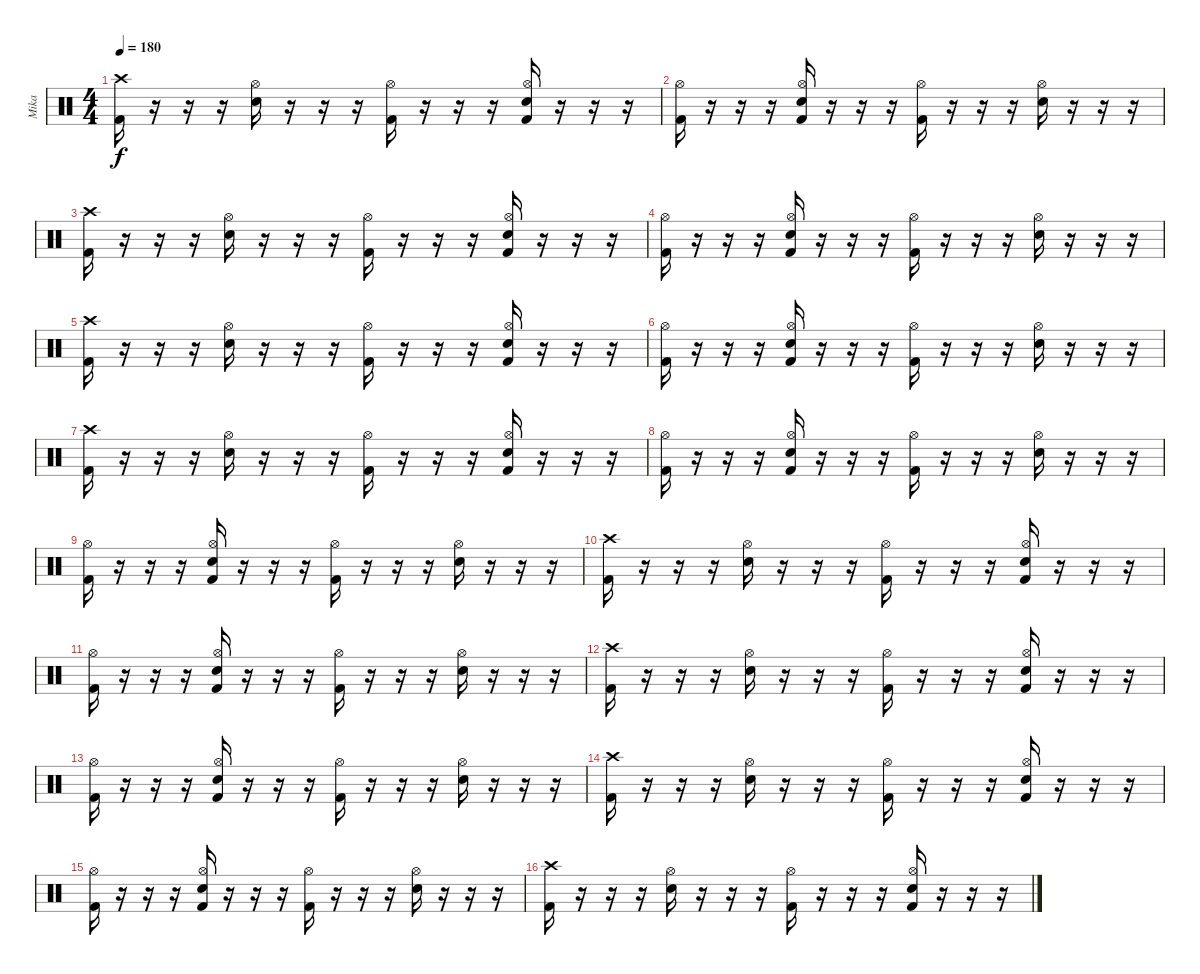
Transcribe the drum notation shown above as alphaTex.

\track ("Mika" "Mika") {instrument percussion}
\staff {score}
\articulation defaults
\ts (4 4)
\tempo 180
\clef neutral
\ks c
("Crash high (hit)" "Kick (hit) 2").16{dy f} r.16 r.16 r.16 ("Hi-Hat (open)" "Electric Snare (hit)").16 r.16 r.16 r.16 ("Hi-Hat (open)" "Kick (hit) 2").16 r.16 r.16 r.16 ("Hi-Hat (open)" "Electric Snare (hit)" "Kick (hit) 2").16 r.16 r.16 r.16 |
("Hi-Hat (open)" "Kick (hit) 2").16 r.16 r.16 r.16 ("Hi-Hat (open)" "Electric Snare (hit)" "Kick (hit) 2").16 r.16 r.16 r.16 ("Hi-Hat (open)" "Kick (hit) 2").16 r.16 r.16 r.16 ("Hi-Hat (open)" "Electric Snare (hit)").16 r.16 r.16 r.16 |
("Crash high (hit)" "Kick (hit) 2").16 r.16 r.16 r.16 ("Hi-Hat (open)" "Electric Snare (hit)").16 r.16 r.16 r.16 ("Hi-Hat (open)" "Kick (hit) 2").16 r.16 r.16 r.16 ("Hi-Hat (open)" "Electric Snare (hit)" "Kick (hit) 2").16 r.16 r.16 r.16 |
("Hi-Hat (open)" "Kick (hit) 2").16 r.16 r.16 r.16 ("Hi-Hat (open)" "Electric Snare (hit)" "Kick (hit) 2").16 r.16 r.16 r.16 ("Hi-Hat (open)" "Kick (hit) 2").16 r.16 r.16 r.16 ("Hi-Hat (open)" "Electric Snare (hit)").16 r.16 r.16 r.16 |
("Crash high (hit)" "Kick (hit) 2").16 r.16 r.16 r.16 ("Hi-Hat (open)" "Electric Snare (hit)").16 r.16 r.16 r.16 ("Hi-Hat (open)" "Kick (hit) 2").16 r.16 r.16 r.16 ("Hi-Hat (open)" "Electric Snare (hit)" "Kick (hit) 2").16 r.16 r.16 r.16 |
("Hi-Hat (open)" "Kick (hit) 2").16 r.16 r.16 r.16 ("Hi-Hat (open)" "Electric Snare (hit)" "Kick (hit) 2").16 r.16 r.16 r.16 ("Hi-Hat (open)" "Kick (hit) 2").16 r.16 r.16 r.16 ("Hi-Hat (open)" "Electric Snare (hit)").16 r.16 r.16 r.16 |
("Crash high (hit)" "Kick (hit) 2").16 r.16 r.16 r.16 ("Hi-Hat (open)" "Electric Snare (hit)").16 r.16 r.16 r.16 ("Hi-Hat (open)" "Kick (hit) 2").16 r.16 r.16 r.16 ("Hi-Hat (open)" "Electric Snare (hit)" "Kick (hit) 2").16 r.16 r.16 r.16 |
("Hi-Hat (open)" "Kick (hit) 2").16 r.16 r.16 r.16 ("Hi-Hat (open)" "Electric Snare (hit)" "Kick (hit) 2").16 r.16 r.16 r.16 ("Hi-Hat (open)" "Kick (hit) 2").16 r.16 r.16 r.16 ("Hi-Hat (open)" "Electric Snare (hit)").16 r.16 r.16 r.16 |
("Hi-Hat (open)" "Kick (hit) 2").16 r.16 r.16 r.16 ("Hi-Hat (open)" "Electric Snare (hit)" "Kick (hit) 2").16 r.16 r.16 r.16 ("Hi-Hat (open)" "Kick (hit) 2").16 r.16 r.16 r.16 ("Hi-Hat (open)" "Electric Snare (hit)").16 r.16 r.16 r.16 |
("Crash high (hit)" "Kick (hit) 2").16 r.16 r.16 r.16 ("Hi-Hat (open)" "Electric Snare (hit)").16 r.16 r.16 r.16 ("Hi-Hat (open)" "Kick (hit) 2").16 r.16 r.16 r.16 ("Hi-Hat (open)" "Electric Snare (hit)" "Kick (hit) 2").16 r.16 r.16 r.16 |
("Hi-Hat (open)" "Kick (hit) 2").16 r.16 r.16 r.16 ("Hi-Hat (open)" "Electric Snare (hit)" "Kick (hit) 2").16 r.16 r.16 r.16 ("Hi-Hat (open)" "Kick (hit) 2").16 r.16 r.16 r.16 ("Hi-Hat (open)" "Electric Snare (hit)").16 r.16 r.16 r.16 |
("Crash high (hit)" "Kick (hit) 2").16 r.16 r.16 r.16 ("Hi-Hat (open)" "Electric Snare (hit)").16 r.16 r.16 r.16 ("Hi-Hat (open)" "Kick (hit) 2").16 r.16 r.16 r.16 ("Hi-Hat (open)" "Electric Snare (hit)" "Kick (hit) 2").16 r.16 r.16 r.16 |
("Hi-Hat (open)" "Kick (hit) 2").16 r.16 r.16 r.16 ("Hi-Hat (open)" "Electric Snare (hit)" "Kick (hit) 2").16 r.16 r.16 r.16 ("Hi-Hat (open)" "Kick (hit) 2").16 r.16 r.16 r.16 ("Hi-Hat (open)" "Electric Snare (hit)").16 r.16 r.16 r.16 |
("Crash high (hit)" "Kick (hit) 2").16 r.16 r.16 r.16 ("Hi-Hat (open)" "Electric Snare (hit)").16 r.16 r.16 r.16 ("Hi-Hat (open)" "Kick (hit) 2").16 r.16 r.16 r.16 ("Hi-Hat (open)" "Electric Snare (hit)" "Kick (hit) 2").16 r.16 r.16 r.16 |
("Hi-Hat (open)" "Kick (hit) 2").16 r.16 r.16 r.16 ("Hi-Hat (open)" "Electric Snare (hit)" "Kick (hit) 2").16 r.16 r.16 r.16 ("Hi-Hat (open)" "Kick (hit) 2").16 r.16 r.16 r.16 ("Hi-Hat (open)" "Electric Snare (hit)").16 r.16 r.16 r.16 |
("Crash high (hit)" "Kick (hit) 2").16 r.16 r.16 r.16 ("Hi-Hat (open)" "Electric Snare (hit)").16 r.16 r.16 r.16 ("Hi-Hat (open)" "Kick (hit) 2").16 r.16 r.16 r.16 ("Hi-Hat (open)" "Electric Snare (hit)" "Kick (hit) 2").16 r.16 r.16 r.16
